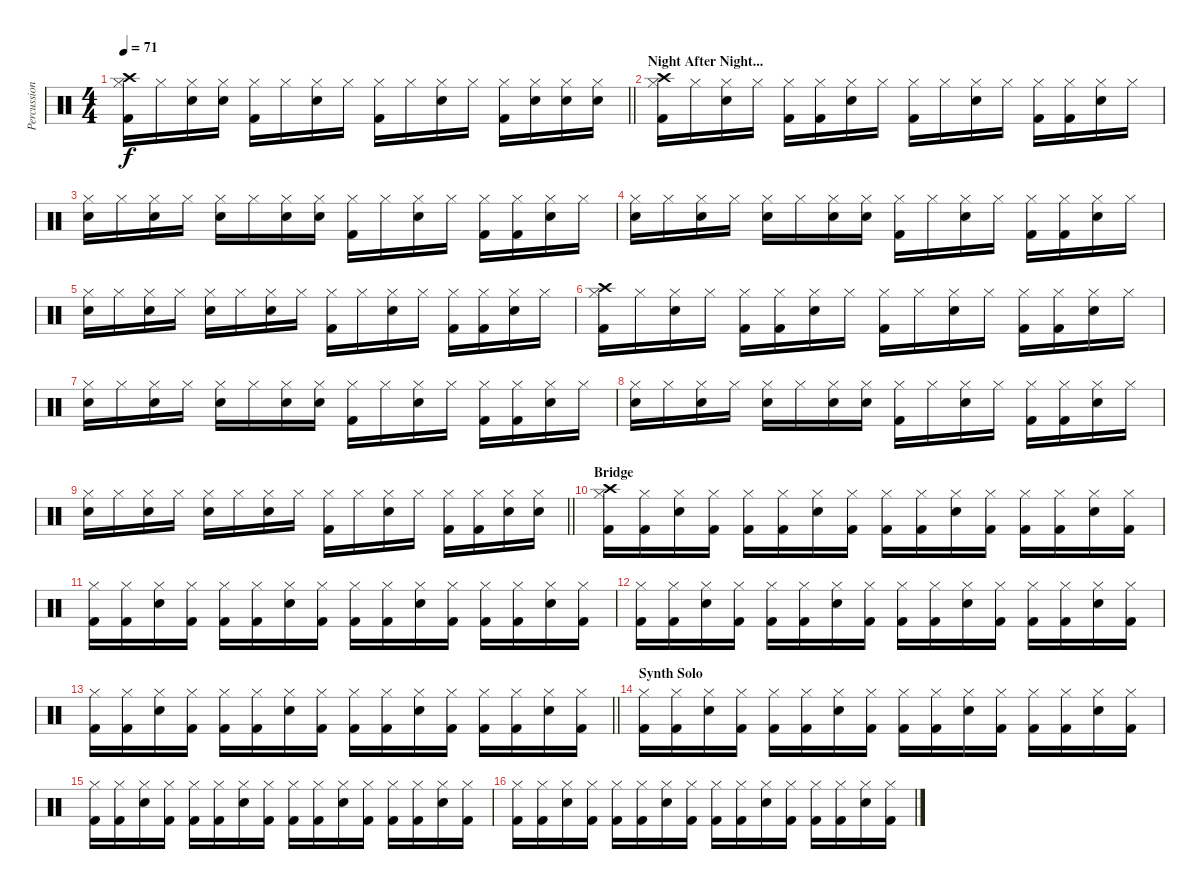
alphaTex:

\track ("Percussion" "Percussion") {instrument percussion}
\staff {score}
\articulation defaults
\ts (4 4)
\tempo 71
\clef neutral
\barLineRight lightlight
\ks c
("Crash high (hit)" "Hi-Hat (closed)" "Kick (hit) 2").16{dy f} "Hi-Hat (closed)".16 ("Hi-Hat (closed)" "Snare (hit) 2").16 ("Hi-Hat (closed)" "Snare (hit) 2").16 ("Hi-Hat (closed)" "Kick (hit) 2").16 "Hi-Hat (closed)".16 ("Hi-Hat (closed)" "Snare (hit) 2").16 "Hi-Hat (closed)".16 ("Hi-Hat (closed)" "Kick (hit) 2").16 "Hi-Hat (closed)".16 ("Hi-Hat (closed)" "Snare (hit) 2").16 "Hi-Hat (closed)".16 ("Hi-Hat (closed)" "Kick (hit) 2").16 ("Hi-Hat (closed)" "Snare (hit) 2").16 ("Hi-Hat (closed)" "Snare (hit) 2").16 ("Hi-Hat (closed)" "Snare (hit) 2").16 |
\section ("" "Night After Night...")
("Crash high (hit)" "Hi-Hat (closed)" "Kick (hit) 2").16 "Hi-Hat (closed)".16 ("Hi-Hat (closed)" "Snare (hit) 2").16 "Hi-Hat (closed)".16 ("Hi-Hat (closed)" "Kick (hit) 2").16 ("Hi-Hat (closed)" "Kick (hit) 2").16 ("Hi-Hat (closed)" "Snare (hit) 2").16 "Hi-Hat (closed)".16 ("Hi-Hat (closed)" "Kick (hit) 2").16 "Hi-Hat (closed)".16 ("Hi-Hat (closed)" "Snare (hit) 2").16 "Hi-Hat (closed)".16 ("Hi-Hat (closed)" "Kick (hit) 2").16 ("Hi-Hat (closed)" "Kick (hit) 2").16 ("Hi-Hat (closed)" "Snare (hit) 2").16 "Hi-Hat (closed)".16 |
("Hi-Hat (closed)" "Snare (hit) 2").16 "Hi-Hat (closed)".16 ("Hi-Hat (closed)" "Snare (hit) 2").16 "Hi-Hat (closed)".16 ("Hi-Hat (closed)" "Snare (hit) 2").16 "Hi-Hat (closed)".16 ("Hi-Hat (closed)" "Snare (hit) 2").16 ("Hi-Hat (closed)" "Snare (hit) 2").16 ("Hi-Hat (closed)" "Kick (hit) 2").16 "Hi-Hat (closed)".16 ("Hi-Hat (closed)" "Snare (hit) 2").16 "Hi-Hat (closed)".16 ("Hi-Hat (closed)" "Kick (hit) 2").16 ("Hi-Hat (closed)" "Kick (hit) 2").16 ("Hi-Hat (closed)" "Snare (hit) 2").16 "Hi-Hat (closed)".16 |
("Hi-Hat (closed)" "Snare (hit) 2").16 "Hi-Hat (closed)".16 ("Hi-Hat (closed)" "Snare (hit) 2").16 "Hi-Hat (closed)".16 ("Hi-Hat (closed)" "Snare (hit) 2").16 "Hi-Hat (closed)".16 ("Hi-Hat (closed)" "Snare (hit) 2").16 ("Hi-Hat (closed)" "Snare (hit) 2").16 ("Hi-Hat (closed)" "Kick (hit) 2").16 "Hi-Hat (closed)".16 ("Hi-Hat (closed)" "Snare (hit) 2").16 "Hi-Hat (closed)".16 ("Hi-Hat (closed)" "Kick (hit) 2").16 ("Hi-Hat (closed)" "Kick (hit) 2").16 ("Hi-Hat (closed)" "Snare (hit) 2").16 "Hi-Hat (closed)".16 |
("Hi-Hat (closed)" "Snare (hit) 2").16 "Hi-Hat (closed)".16 ("Hi-Hat (closed)" "Snare (hit) 2").16 "Hi-Hat (closed)".16 ("Hi-Hat (closed)" "Snare (hit) 2").16 "Hi-Hat (closed)".16 ("Hi-Hat (closed)" "Snare (hit) 2").16 "Hi-Hat (closed)".16 ("Hi-Hat (closed)" "Kick (hit) 2").16 "Hi-Hat (closed)".16 ("Hi-Hat (closed)" "Snare (hit) 2").16 "Hi-Hat (closed)".16 ("Hi-Hat (closed)" "Kick (hit) 2").16 ("Hi-Hat (closed)" "Kick (hit) 2").16 ("Hi-Hat (closed)" "Snare (hit) 2").16 "Hi-Hat (closed)".16 |
("Crash high (hit)" "Hi-Hat (closed)" "Kick (hit) 2").16 "Hi-Hat (closed)".16 ("Hi-Hat (closed)" "Snare (hit) 2").16 "Hi-Hat (closed)".16 ("Hi-Hat (closed)" "Kick (hit) 2").16 ("Hi-Hat (closed)" "Kick (hit) 2").16 ("Hi-Hat (closed)" "Snare (hit) 2").16 "Hi-Hat (closed)".16 ("Hi-Hat (closed)" "Kick (hit) 2").16 "Hi-Hat (closed)".16 ("Hi-Hat (closed)" "Snare (hit) 2").16 "Hi-Hat (closed)".16 ("Hi-Hat (closed)" "Kick (hit) 2").16 ("Hi-Hat (closed)" "Kick (hit) 2").16 ("Hi-Hat (closed)" "Snare (hit) 2").16 "Hi-Hat (closed)".16 |
("Hi-Hat (closed)" "Snare (hit) 2").16 "Hi-Hat (closed)".16 ("Hi-Hat (closed)" "Snare (hit) 2").16 "Hi-Hat (closed)".16 ("Hi-Hat (closed)" "Snare (hit) 2").16 "Hi-Hat (closed)".16 ("Hi-Hat (closed)" "Snare (hit) 2").16 ("Hi-Hat (closed)" "Snare (hit) 2").16 ("Hi-Hat (closed)" "Kick (hit) 2").16 "Hi-Hat (closed)".16 ("Hi-Hat (closed)" "Snare (hit) 2").16 "Hi-Hat (closed)".16 ("Hi-Hat (closed)" "Kick (hit) 2").16 ("Hi-Hat (closed)" "Kick (hit) 2").16 ("Hi-Hat (closed)" "Snare (hit) 2").16 "Hi-Hat (closed)".16 |
("Hi-Hat (closed)" "Snare (hit) 2").16 "Hi-Hat (closed)".16 ("Hi-Hat (closed)" "Snare (hit) 2").16 "Hi-Hat (closed)".16 ("Hi-Hat (closed)" "Snare (hit) 2").16 "Hi-Hat (closed)".16 ("Hi-Hat (closed)" "Snare (hit) 2").16 ("Hi-Hat (closed)" "Snare (hit) 2").16 ("Hi-Hat (closed)" "Kick (hit) 2").16 "Hi-Hat (closed)".16 ("Hi-Hat (closed)" "Snare (hit) 2").16 "Hi-Hat (closed)".16 ("Hi-Hat (closed)" "Kick (hit) 2").16 ("Hi-Hat (closed)" "Kick (hit) 2").16 ("Hi-Hat (closed)" "Snare (hit) 2").16 "Hi-Hat (closed)".16 |
\barLineRight lightlight
("Hi-Hat (closed)" "Snare (hit) 2").16 "Hi-Hat (closed)".16 ("Hi-Hat (closed)" "Snare (hit) 2").16 "Hi-Hat (closed)".16 ("Hi-Hat (closed)" "Snare (hit) 2").16 "Hi-Hat (closed)".16 ("Hi-Hat (closed)" "Snare (hit) 2").16 "Hi-Hat (closed)".16 ("Hi-Hat (closed)" "Kick (hit) 2").16 "Hi-Hat (closed)".16 ("Hi-Hat (closed)" "Snare (hit) 2").16 "Hi-Hat (closed)".16 ("Hi-Hat (closed)" "Kick (hit) 2").16 ("Hi-Hat (closed)" "Kick (hit) 2").16 ("Hi-Hat (closed)" "Snare (hit) 2").16 ("Hi-Hat (closed)" "Snare (hit) 2").16 |
\section ("" "Bridge")
("Crash high (hit)" "Hi-Hat (closed)" "Kick (hit) 2").16 ("Hi-Hat (closed)" "Kick (hit) 2").16 ("Hi-Hat (closed)" "Snare (hit) 2").16 ("Hi-Hat (closed)" "Kick (hit) 2").16 ("Hi-Hat (closed)" "Kick (hit) 2").16 ("Hi-Hat (closed)" "Kick (hit) 2").16 ("Hi-Hat (closed)" "Snare (hit) 2").16 ("Hi-Hat (closed)" "Kick (hit) 2").16 ("Hi-Hat (closed)" "Kick (hit) 2").16 ("Hi-Hat (closed)" "Kick (hit) 2").16 ("Hi-Hat (closed)" "Snare (hit) 2").16 ("Hi-Hat (closed)" "Kick (hit) 2").16 ("Hi-Hat (closed)" "Kick (hit) 2").16 ("Hi-Hat (closed)" "Kick (hit) 2").16 ("Hi-Hat (closed)" "Snare (hit) 2").16 ("Hi-Hat (closed)" "Kick (hit) 2").16 |
("Hi-Hat (closed)" "Kick (hit) 2").16 ("Hi-Hat (closed)" "Kick (hit) 2").16 ("Hi-Hat (closed)" "Snare (hit) 2").16 ("Hi-Hat (closed)" "Kick (hit) 2").16 ("Hi-Hat (closed)" "Kick (hit) 2").16 ("Hi-Hat (closed)" "Kick (hit) 2").16 ("Hi-Hat (closed)" "Snare (hit) 2").16 ("Hi-Hat (closed)" "Kick (hit) 2").16 ("Hi-Hat (closed)" "Kick (hit) 2").16 ("Hi-Hat (closed)" "Kick (hit) 2").16 ("Hi-Hat (closed)" "Snare (hit) 2").16 ("Hi-Hat (closed)" "Kick (hit) 2").16 ("Hi-Hat (closed)" "Kick (hit) 2").16 ("Hi-Hat (closed)" "Kick (hit) 2").16 ("Hi-Hat (closed)" "Snare (hit) 2").16 ("Hi-Hat (closed)" "Kick (hit) 2").16 |
("Hi-Hat (closed)" "Kick (hit) 2").16 ("Hi-Hat (closed)" "Kick (hit) 2").16 ("Hi-Hat (closed)" "Snare (hit) 2").16 ("Hi-Hat (closed)" "Kick (hit) 2").16 ("Hi-Hat (closed)" "Kick (hit) 2").16 ("Hi-Hat (closed)" "Kick (hit) 2").16 ("Hi-Hat (closed)" "Snare (hit) 2").16 ("Hi-Hat (closed)" "Kick (hit) 2").16 ("Hi-Hat (closed)" "Kick (hit) 2").16 ("Hi-Hat (closed)" "Kick (hit) 2").16 ("Hi-Hat (closed)" "Snare (hit) 2").16 ("Hi-Hat (closed)" "Kick (hit) 2").16 ("Hi-Hat (closed)" "Kick (hit) 2").16 ("Hi-Hat (closed)" "Kick (hit) 2").16 ("Hi-Hat (closed)" "Snare (hit) 2").16 ("Hi-Hat (closed)" "Kick (hit) 2").16 |
\barLineRight lightlight
("Hi-Hat (closed)" "Kick (hit) 2").16 ("Hi-Hat (closed)" "Kick (hit) 2").16 ("Hi-Hat (closed)" "Snare (hit) 2").16 ("Hi-Hat (closed)" "Kick (hit) 2").16 ("Hi-Hat (closed)" "Kick (hit) 2").16 ("Hi-Hat (closed)" "Kick (hit) 2").16 ("Hi-Hat (closed)" "Snare (hit) 2").16 ("Hi-Hat (closed)" "Kick (hit) 2").16 ("Hi-Hat (closed)" "Kick (hit) 2").16 ("Hi-Hat (closed)" "Kick (hit) 2").16 ("Hi-Hat (closed)" "Snare (hit) 2").16 ("Hi-Hat (closed)" "Kick (hit) 2").16 ("Hi-Hat (closed)" "Kick (hit) 2").16 ("Hi-Hat (closed)" "Kick (hit) 2").16 ("Hi-Hat (closed)" "Snare (hit) 2").16 ("Hi-Hat (closed)" "Kick (hit) 2").16 |
\section ("" "Synth Solo")
("Hi-Hat (closed)" "Kick (hit) 2").16 ("Hi-Hat (closed)" "Kick (hit) 2").16 ("Hi-Hat (closed)" "Snare (hit) 2").16 ("Hi-Hat (closed)" "Kick (hit) 2").16 ("Hi-Hat (closed)" "Kick (hit) 2").16 ("Hi-Hat (closed)" "Kick (hit) 2").16 ("Hi-Hat (closed)" "Snare (hit) 2").16 ("Hi-Hat (closed)" "Kick (hit) 2").16 ("Hi-Hat (closed)" "Kick (hit) 2").16 ("Hi-Hat (closed)" "Kick (hit) 2").16 ("Hi-Hat (closed)" "Snare (hit) 2").16 ("Hi-Hat (closed)" "Kick (hit) 2").16 ("Hi-Hat (closed)" "Kick (hit) 2").16 ("Hi-Hat (closed)" "Kick (hit) 2").16 ("Hi-Hat (closed)" "Snare (hit) 2").16 ("Hi-Hat (closed)" "Kick (hit) 2").16 |
("Hi-Hat (closed)" "Kick (hit) 2").16 ("Hi-Hat (closed)" "Kick (hit) 2").16 ("Hi-Hat (closed)" "Snare (hit) 2").16 ("Hi-Hat (closed)" "Kick (hit) 2").16 ("Hi-Hat (closed)" "Kick (hit) 2").16 ("Hi-Hat (closed)" "Kick (hit) 2").16 ("Hi-Hat (closed)" "Snare (hit) 2").16 ("Hi-Hat (closed)" "Kick (hit) 2").16 ("Hi-Hat (closed)" "Kick (hit) 2").16 ("Hi-Hat (closed)" "Kick (hit) 2").16 ("Hi-Hat (closed)" "Snare (hit) 2").16 ("Hi-Hat (closed)" "Kick (hit) 2").16 ("Hi-Hat (closed)" "Kick (hit) 2").16 ("Hi-Hat (closed)" "Kick (hit) 2").16 ("Hi-Hat (closed)" "Snare (hit) 2").16 ("Hi-Hat (closed)" "Kick (hit) 2").16 |
("Hi-Hat (closed)" "Kick (hit) 2").16 ("Hi-Hat (closed)" "Kick (hit) 2").16 ("Hi-Hat (closed)" "Snare (hit) 2").16 ("Hi-Hat (closed)" "Kick (hit) 2").16 ("Hi-Hat (closed)" "Kick (hit) 2").16 ("Hi-Hat (closed)" "Kick (hit) 2").16 ("Hi-Hat (closed)" "Snare (hit) 2").16 ("Hi-Hat (closed)" "Kick (hit) 2").16 ("Hi-Hat (closed)" "Kick (hit) 2").16 ("Hi-Hat (closed)" "Kick (hit) 2").16 ("Hi-Hat (closed)" "Snare (hit) 2").16 ("Hi-Hat (closed)" "Kick (hit) 2").16 ("Hi-Hat (closed)" "Kick (hit) 2").16 ("Hi-Hat (closed)" "Kick (hit) 2").16 ("Hi-Hat (closed)" "Snare (hit) 2").16 ("Hi-Hat (closed)" "Kick (hit) 2").16
